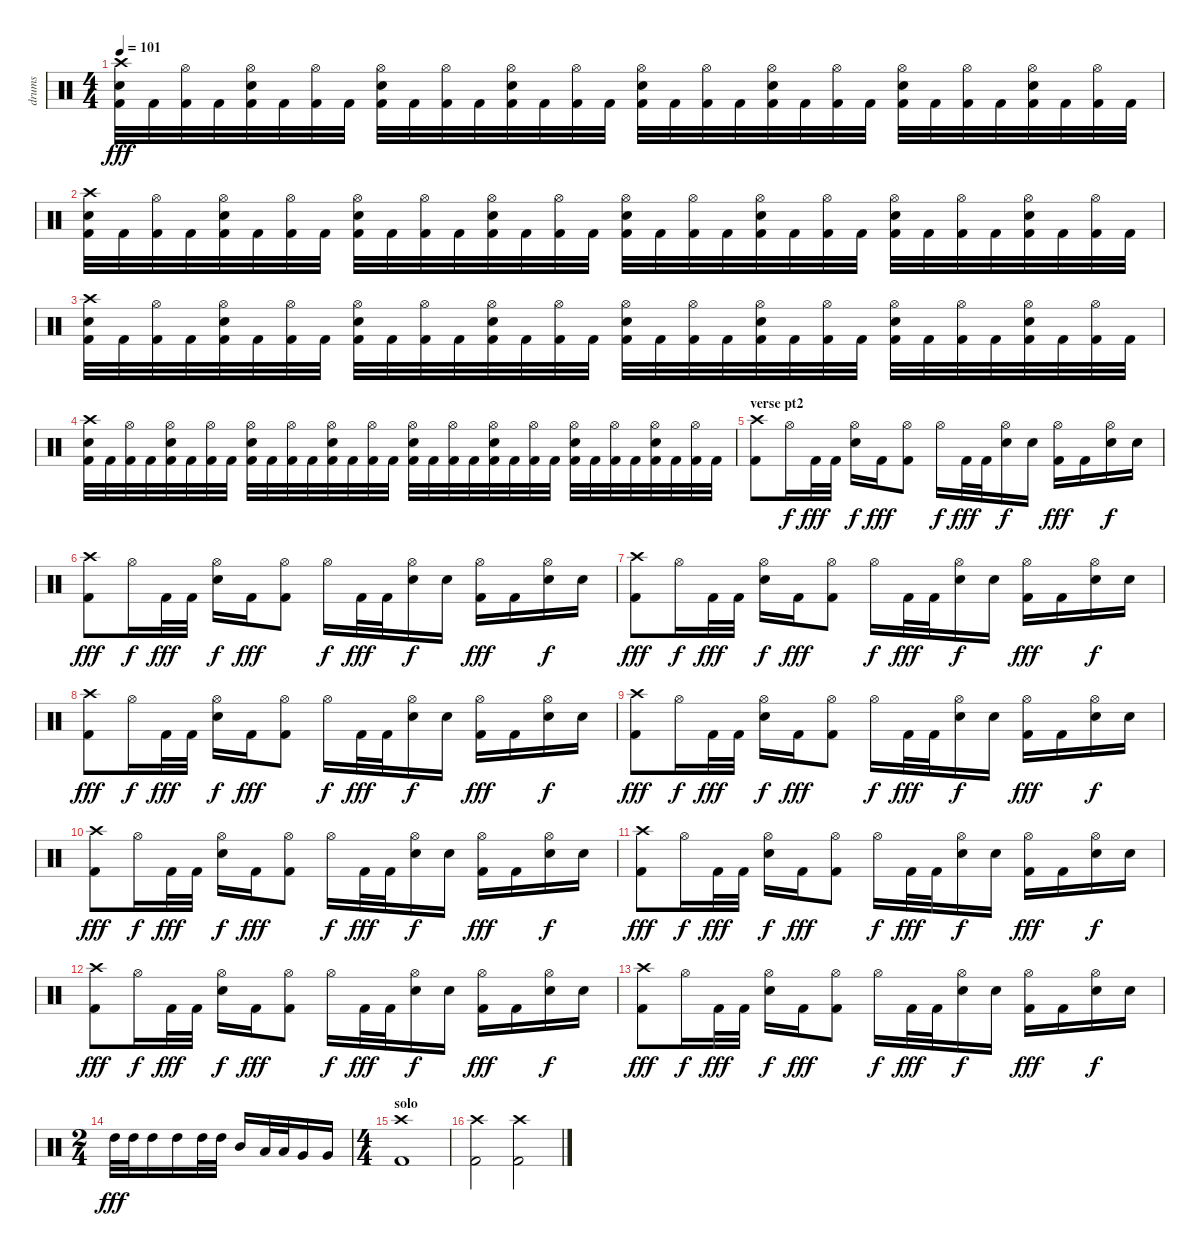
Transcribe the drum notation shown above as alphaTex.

\track ("drums" "drums") {instrument percussion}
\staff {score}
\articulation defaults
\ts (4 4)
\tempo 101
\clef neutral
\ks c
("Crash high (hit)" "Snare (hit) 2" "Kick (hit) 2").32{dy fff} "Kick (hit) 2".32 ("Hi-Hat (open)" "Kick (hit) 2").32 "Kick (hit) 2".32 ("Hi-Hat (open)" "Snare (hit) 2" "Kick (hit) 2").32 "Kick (hit) 2".32 ("Hi-Hat (open)" "Kick (hit) 2").32 "Kick (hit) 2".32 ("Hi-Hat (open)" "Snare (hit) 2" "Kick (hit) 2").32 "Kick (hit) 2".32 ("Hi-Hat (open)" "Kick (hit) 2").32 "Kick (hit) 2".32 ("Hi-Hat (open)" "Snare (hit) 2" "Kick (hit) 2").32 "Kick (hit) 2".32 ("Hi-Hat (open)" "Kick (hit) 2").32 "Kick (hit) 2".32 ("Hi-Hat (open)" "Snare (hit) 2" "Kick (hit) 2").32 "Kick (hit) 2".32 ("Hi-Hat (open)" "Kick (hit) 2").32 "Kick (hit) 2".32 ("Hi-Hat (open)" "Snare (hit) 2" "Kick (hit) 2").32 "Kick (hit) 2".32 ("Hi-Hat (open)" "Kick (hit) 2").32 "Kick (hit) 2".32 ("Hi-Hat (open)" "Snare (hit) 2" "Kick (hit) 2").32 "Kick (hit) 2".32 ("Hi-Hat (open)" "Kick (hit) 2").32 "Kick (hit) 2".32 ("Hi-Hat (open)" "Snare (hit) 2" "Kick (hit) 2").32 "Kick (hit) 2".32 ("Hi-Hat (open)" "Kick (hit) 2").32 "Kick (hit) 2".32 |
("Crash high (hit)" "Snare (hit) 2" "Kick (hit) 2").32 "Kick (hit) 2".32 ("Hi-Hat (open)" "Kick (hit) 2").32 "Kick (hit) 2".32 ("Hi-Hat (open)" "Snare (hit) 2" "Kick (hit) 2").32 "Kick (hit) 2".32 ("Hi-Hat (open)" "Kick (hit) 2").32 "Kick (hit) 2".32 ("Hi-Hat (open)" "Snare (hit) 2" "Kick (hit) 2").32 "Kick (hit) 2".32 ("Hi-Hat (open)" "Kick (hit) 2").32 "Kick (hit) 2".32 ("Hi-Hat (open)" "Snare (hit) 2" "Kick (hit) 2").32 "Kick (hit) 2".32 ("Hi-Hat (open)" "Kick (hit) 2").32 "Kick (hit) 2".32 ("Hi-Hat (open)" "Snare (hit) 2" "Kick (hit) 2").32 "Kick (hit) 2".32 ("Hi-Hat (open)" "Kick (hit) 2").32 "Kick (hit) 2".32 ("Hi-Hat (open)" "Snare (hit) 2" "Kick (hit) 2").32 "Kick (hit) 2".32 ("Hi-Hat (open)" "Kick (hit) 2").32 "Kick (hit) 2".32 ("Hi-Hat (open)" "Snare (hit) 2" "Kick (hit) 2").32 "Kick (hit) 2".32 ("Hi-Hat (open)" "Kick (hit) 2").32 "Kick (hit) 2".32 ("Hi-Hat (open)" "Snare (hit) 2" "Kick (hit) 2").32 "Kick (hit) 2".32 ("Hi-Hat (open)" "Kick (hit) 2").32 "Kick (hit) 2".32 |
("Crash high (hit)" "Snare (hit) 2" "Kick (hit) 2").32 "Kick (hit) 2".32 ("Hi-Hat (open)" "Kick (hit) 2").32 "Kick (hit) 2".32 ("Hi-Hat (open)" "Snare (hit) 2" "Kick (hit) 2").32 "Kick (hit) 2".32 ("Hi-Hat (open)" "Kick (hit) 2").32 "Kick (hit) 2".32 ("Hi-Hat (open)" "Snare (hit) 2" "Kick (hit) 2").32 "Kick (hit) 2".32 ("Hi-Hat (open)" "Kick (hit) 2").32 "Kick (hit) 2".32 ("Hi-Hat (open)" "Snare (hit) 2" "Kick (hit) 2").32 "Kick (hit) 2".32 ("Hi-Hat (open)" "Kick (hit) 2").32 "Kick (hit) 2".32 ("Hi-Hat (open)" "Snare (hit) 2" "Kick (hit) 2").32 "Kick (hit) 2".32 ("Hi-Hat (open)" "Kick (hit) 2").32 "Kick (hit) 2".32 ("Hi-Hat (open)" "Snare (hit) 2" "Kick (hit) 2").32 "Kick (hit) 2".32 ("Hi-Hat (open)" "Kick (hit) 2").32 "Kick (hit) 2".32 ("Hi-Hat (open)" "Snare (hit) 2" "Kick (hit) 2").32 "Kick (hit) 2".32 ("Hi-Hat (open)" "Kick (hit) 2").32 "Kick (hit) 2".32 ("Hi-Hat (open)" "Snare (hit) 2" "Kick (hit) 2").32 "Kick (hit) 2".32 ("Hi-Hat (open)" "Kick (hit) 2").32 "Kick (hit) 2".32 |
("Crash high (hit)" "Snare (hit) 2" "Kick (hit) 2").32 "Kick (hit) 2".32 ("Hi-Hat (open)" "Kick (hit) 2").32 "Kick (hit) 2".32 ("Hi-Hat (open)" "Snare (hit) 2" "Kick (hit) 2").32 "Kick (hit) 2".32 ("Hi-Hat (open)" "Kick (hit) 2").32 "Kick (hit) 2".32 ("Hi-Hat (open)" "Snare (hit) 2" "Kick (hit) 2").32 "Kick (hit) 2".32 ("Hi-Hat (open)" "Kick (hit) 2").32 "Kick (hit) 2".32 ("Hi-Hat (open)" "Snare (hit) 2" "Kick (hit) 2").32 "Kick (hit) 2".32 ("Hi-Hat (open)" "Kick (hit) 2").32 "Kick (hit) 2".32 ("Hi-Hat (open)" "Snare (hit) 2" "Kick (hit) 2").32 "Kick (hit) 2".32 ("Hi-Hat (open)" "Kick (hit) 2").32 "Kick (hit) 2".32 ("Hi-Hat (open)" "Snare (hit) 2" "Kick (hit) 2").32 "Kick (hit) 2".32 ("Hi-Hat (open)" "Kick (hit) 2").32 "Kick (hit) 2".32 ("Hi-Hat (open)" "Snare (hit) 2" "Kick (hit) 2").32 "Kick (hit) 2".32 ("Hi-Hat (open)" "Kick (hit) 2").32 "Kick (hit) 2".32 ("Hi-Hat (open)" "Snare (hit) 2" "Kick (hit) 2").32 "Kick (hit) 2".32 ("Hi-Hat (open)" "Kick (hit) 2").32 "Kick (hit) 2".32 |
\section ("" "verse pt2")
("Crash high (hit)" "Kick (hit) 2").8 "Hi-Hat (open)".16{dy f} "Kick (hit) 2".32{dy fff} "Kick (hit) 2".32 ("Hi-Hat (open)" "Snare (hit) 2").16{dy f} "Kick (hit) 2".16{dy fff} ("Hi-Hat (open)" "Kick (hit) 2").8 "Hi-Hat (open)".16{dy f} "Kick (hit) 2".32{dy fff} "Kick (hit) 2".32 ("Hi-Hat (open)" "Snare (hit) 2").16{dy f} "Snare (hit) 2".16 ("Hi-Hat (open)" "Kick (hit) 2").16{dy fff} "Kick (hit) 2".16 ("Hi-Hat (open)" "Snare (hit) 2").16{dy f} "Snare (hit) 2".16 |
("Crash high (hit)" "Kick (hit) 2").8{dy fff} "Hi-Hat (open)".16{dy f} "Kick (hit) 2".32{dy fff} "Kick (hit) 2".32 ("Hi-Hat (open)" "Snare (hit) 2").16{dy f} "Kick (hit) 2".16{dy fff} ("Hi-Hat (open)" "Kick (hit) 2").8 "Hi-Hat (open)".16{dy f} "Kick (hit) 2".32{dy fff} "Kick (hit) 2".32 ("Hi-Hat (open)" "Snare (hit) 2").16{dy f} "Snare (hit) 2".16 ("Hi-Hat (open)" "Kick (hit) 2").16{dy fff} "Kick (hit) 2".16 ("Hi-Hat (open)" "Snare (hit) 2").16{dy f} "Snare (hit) 2".16 |
("Crash high (hit)" "Kick (hit) 2").8{dy fff} "Hi-Hat (open)".16{dy f} "Kick (hit) 2".32{dy fff} "Kick (hit) 2".32 ("Hi-Hat (open)" "Snare (hit) 2").16{dy f} "Kick (hit) 2".16{dy fff} ("Hi-Hat (open)" "Kick (hit) 2").8 "Hi-Hat (open)".16{dy f} "Kick (hit) 2".32{dy fff} "Kick (hit) 2".32 ("Hi-Hat (open)" "Snare (hit) 2").16{dy f} "Snare (hit) 2".16 ("Hi-Hat (open)" "Kick (hit) 2").16{dy fff} "Kick (hit) 2".16 ("Hi-Hat (open)" "Snare (hit) 2").16{dy f} "Snare (hit) 2".16 |
("Crash high (hit)" "Kick (hit) 2").8{dy fff} "Hi-Hat (open)".16{dy f} "Kick (hit) 2".32{dy fff} "Kick (hit) 2".32 ("Hi-Hat (open)" "Snare (hit) 2").16{dy f} "Kick (hit) 2".16{dy fff} ("Hi-Hat (open)" "Kick (hit) 2").8 "Hi-Hat (open)".16{dy f} "Kick (hit) 2".32{dy fff} "Kick (hit) 2".32 ("Hi-Hat (open)" "Snare (hit) 2").16{dy f} "Snare (hit) 2".16 ("Hi-Hat (open)" "Kick (hit) 2").16{dy fff} "Kick (hit) 2".16 ("Hi-Hat (open)" "Snare (hit) 2").16{dy f} "Snare (hit) 2".16 |
("Crash high (hit)" "Kick (hit) 2").8{dy fff} "Hi-Hat (open)".16{dy f} "Kick (hit) 2".32{dy fff} "Kick (hit) 2".32 ("Hi-Hat (open)" "Snare (hit) 2").16{dy f} "Kick (hit) 2".16{dy fff} ("Hi-Hat (open)" "Kick (hit) 2").8 "Hi-Hat (open)".16{dy f} "Kick (hit) 2".32{dy fff} "Kick (hit) 2".32 ("Hi-Hat (open)" "Snare (hit) 2").16{dy f} "Snare (hit) 2".16 ("Hi-Hat (open)" "Kick (hit) 2").16{dy fff} "Kick (hit) 2".16 ("Hi-Hat (open)" "Snare (hit) 2").16{dy f} "Snare (hit) 2".16 |
("Crash high (hit)" "Kick (hit) 2").8{dy fff} "Hi-Hat (open)".16{dy f} "Kick (hit) 2".32{dy fff} "Kick (hit) 2".32 ("Hi-Hat (open)" "Snare (hit) 2").16{dy f} "Kick (hit) 2".16{dy fff} ("Hi-Hat (open)" "Kick (hit) 2").8 "Hi-Hat (open)".16{dy f} "Kick (hit) 2".32{dy fff} "Kick (hit) 2".32 ("Hi-Hat (open)" "Snare (hit) 2").16{dy f} "Snare (hit) 2".16 ("Hi-Hat (open)" "Kick (hit) 2").16{dy fff} "Kick (hit) 2".16 ("Hi-Hat (open)" "Snare (hit) 2").16{dy f} "Snare (hit) 2".16 |
("Crash high (hit)" "Kick (hit) 2").8{dy fff} "Hi-Hat (open)".16{dy f} "Kick (hit) 2".32{dy fff} "Kick (hit) 2".32 ("Hi-Hat (open)" "Snare (hit) 2").16{dy f} "Kick (hit) 2".16{dy fff} ("Hi-Hat (open)" "Kick (hit) 2").8 "Hi-Hat (open)".16{dy f} "Kick (hit) 2".32{dy fff} "Kick (hit) 2".32 ("Hi-Hat (open)" "Snare (hit) 2").16{dy f} "Snare (hit) 2".16 ("Hi-Hat (open)" "Kick (hit) 2").16{dy fff} "Kick (hit) 2".16 ("Hi-Hat (open)" "Snare (hit) 2").16{dy f} "Snare (hit) 2".16 |
("Crash high (hit)" "Kick (hit) 2").8{dy fff} "Hi-Hat (open)".16{dy f} "Kick (hit) 2".32{dy fff} "Kick (hit) 2".32 ("Hi-Hat (open)" "Snare (hit) 2").16{dy f} "Kick (hit) 2".16{dy fff} ("Hi-Hat (open)" "Kick (hit) 2").8 "Hi-Hat (open)".16{dy f} "Kick (hit) 2".32{dy fff} "Kick (hit) 2".32 ("Hi-Hat (open)" "Snare (hit) 2").16{dy f} "Snare (hit) 2".16 ("Hi-Hat (open)" "Kick (hit) 2").16{dy fff} "Kick (hit) 2".16 ("Hi-Hat (open)" "Snare (hit) 2").16{dy f} "Snare (hit) 2".16 |
("Crash high (hit)" "Kick (hit) 2").8{dy fff} "Hi-Hat (open)".16{dy f} "Kick (hit) 2".32{dy fff} "Kick (hit) 2".32 ("Hi-Hat (open)" "Snare (hit) 2").16{dy f} "Kick (hit) 2".16{dy fff} ("Hi-Hat (open)" "Kick (hit) 2").8 "Hi-Hat (open)".16{dy f} "Kick (hit) 2".32{dy fff} "Kick (hit) 2".32 ("Hi-Hat (open)" "Snare (hit) 2").16{dy f} "Snare (hit) 2".16 ("Hi-Hat (open)" "Kick (hit) 2").16{dy fff} "Kick (hit) 2".16 ("Hi-Hat (open)" "Snare (hit) 2").16{dy f} "Snare (hit) 2".16 |
\ts (2 4)
"High Tom (hit)".32{dy fff} "High Tom (hit)".32 "High Tom (hit)".16 "High Tom (hit)".16 "High Tom (hit)".32 "High Tom (hit)".32 "Mid Tom (hit)".16 "Low Tom (hit)".32 "Low Tom (hit)".32 "Very Low Tom (hit)".16 "Very Low Tom (hit)".16 |
\ts (4 4)
\section ("" "solo")
("Crash high (hit)" "Kick (hit) 2").1 |
("Crash high (hit)" "Kick (hit) 2").2 ("Crash high (hit)" "Kick (hit) 2").2
